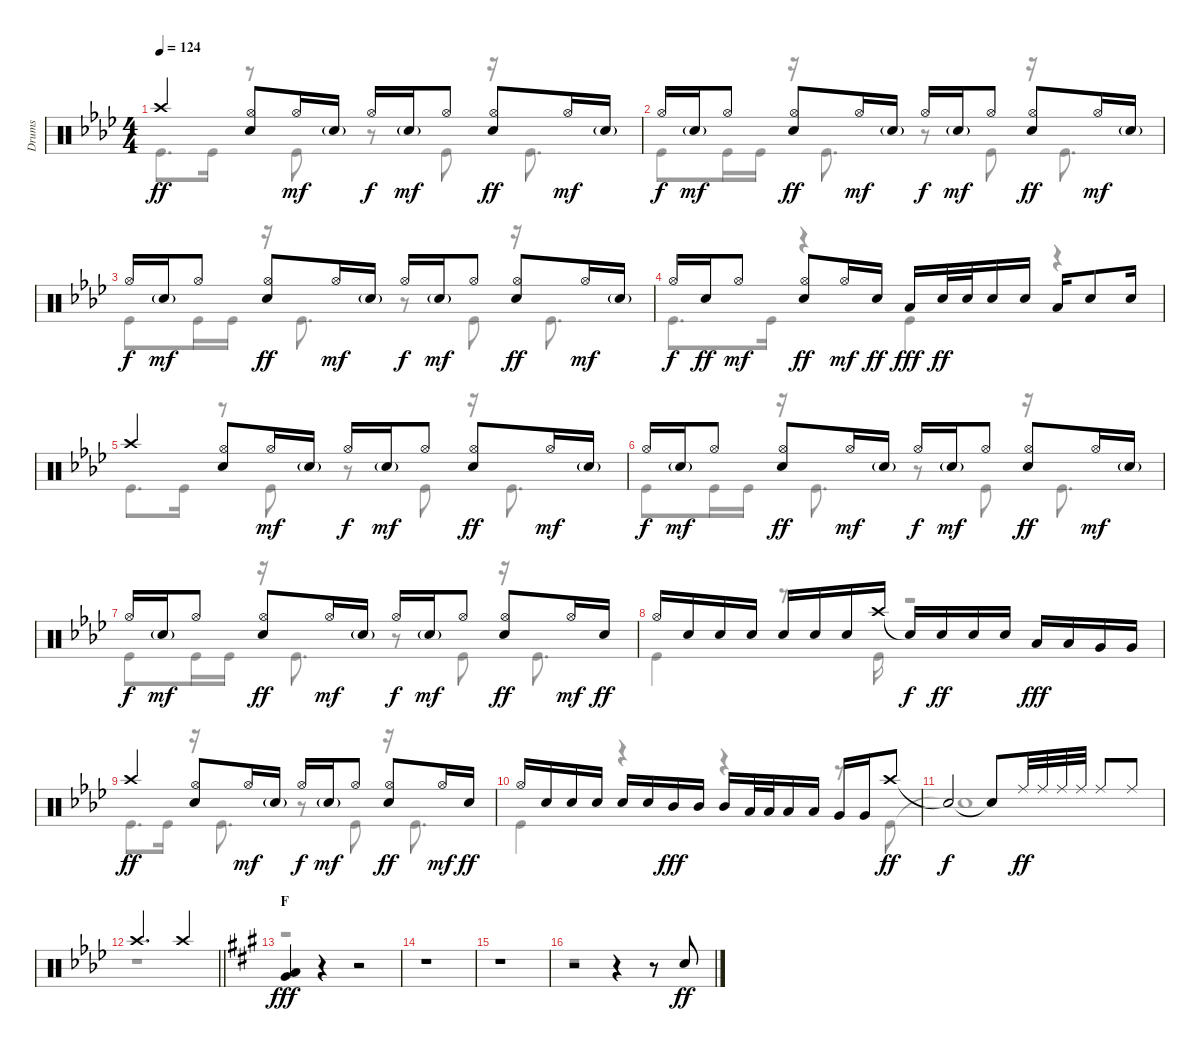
\track ("Drums" "Drums") {solo instrument percussion}
\staff {score}
\articulation defaults
\voice
\ts (4 4)
\tempo 124
\clef neutral
\ks ab "Crash high (hit)".4{dy ff}
("Hi-Hat (open)" "Electric Snare (hit)").8 "Hi-Hat (open)".16{dy mf} "Electric Snare (hit)"{g}.16 "Hi-Hat (open)".16{dy f} "Electric Snare (hit)"{g}.16{dy mf} "Hi-Hat (open)".8 ("Hi-Hat (open)" "Electric Snare (hit)").8{dy ff} "Hi-Hat (open)".16{dy mf} "Electric Snare (hit)"{g}.16 |
"Hi-Hat (open)".16{dy f} "Electric Snare (hit)"{g}.16{dy mf} "Hi-Hat (open)".8 ("Hi-Hat (open)" "Electric Snare (hit)").8{dy ff} "Hi-Hat (open)".16{dy mf} "Electric Snare (hit)"{g}.16 "Hi-Hat (open)".16{dy f} "Electric Snare (hit)"{g}.16{dy mf} "Hi-Hat (open)".8 ("Hi-Hat (open)" "Electric Snare (hit)").8{dy ff} "Hi-Hat (open)".16{dy mf} "Electric Snare (hit)"{g}.16 |
"Hi-Hat (open)".16{dy f} "Electric Snare (hit)"{g}.16{dy mf} "Hi-Hat (open)".8 ("Hi-Hat (open)" "Electric Snare (hit)").8{dy ff} "Hi-Hat (open)".16{dy mf} "Electric Snare (hit)"{g}.16 "Hi-Hat (open)".16{dy f} "Electric Snare (hit)"{g}.16{dy mf} "Hi-Hat (open)".8 ("Hi-Hat (open)" "Electric Snare (hit)").8{dy ff} "Hi-Hat (open)".16{dy mf} "Electric Snare (hit)"{g}.16 |
"Hi-Hat (open)".16{dy f} "Electric Snare (hit)".16{dy ff} "Hi-Hat (open)".8{dy mf} ("Hi-Hat (open)" "Electric Snare (hit)").8{dy ff} "Hi-Hat (open)".16{dy mf} "Electric Snare (hit)".16{dy ff} "Low Tom (hit)".16{dy fff} "Electric Snare (hit)".32{dy ff} "Electric Snare (hit)".32{beam splitsecondary} "Electric Snare (hit)".16 "Electric Snare (hit)".16 "Low Tom (hit)".16 "Electric Snare (hit)".8 "Electric Snare (hit)".16 |
"Crash high (hit)".4 ("Hi-Hat (open)" "Electric Snare (hit)").8 "Hi-Hat (open)".16{dy mf} "Electric Snare (hit)"{g}.16 "Hi-Hat (open)".16{dy f} "Electric Snare (hit)"{g}.16{dy mf} "Hi-Hat (open)".8 ("Hi-Hat (open)" "Electric Snare (hit)").8{dy ff} "Hi-Hat (open)".16{dy mf} "Electric Snare (hit)"{g}.16 |
"Hi-Hat (open)".16{dy f} "Electric Snare (hit)"{g}.16{dy mf} "Hi-Hat (open)".8 ("Hi-Hat (open)" "Electric Snare (hit)").8{dy ff} "Hi-Hat (open)".16{dy mf} "Electric Snare (hit)"{g}.16 "Hi-Hat (open)".16{dy f} "Electric Snare (hit)"{g}.16{dy mf} "Hi-Hat (open)".8 ("Hi-Hat (open)" "Electric Snare (hit)").8{dy ff} "Hi-Hat (open)".16{dy mf} "Electric Snare (hit)"{g}.16 |
"Hi-Hat (open)".16{dy f} "Electric Snare (hit)"{g}.16{dy mf} "Hi-Hat (open)".8 ("Hi-Hat (open)" "Electric Snare (hit)").8{dy ff} "Hi-Hat (open)".16{dy mf} "Electric Snare (hit)"{g}.16 "Hi-Hat (open)".16{dy f} "Electric Snare (hit)"{g}.16{dy mf} "Hi-Hat (open)".8 ("Hi-Hat (open)" "Electric Snare (hit)").8{dy ff} "Hi-Hat (open)".16{dy mf} "Electric Snare (hit)".16{dy ff} |
"Hi-Hat (open)".16 "Electric Snare (hit)".16 "Electric Snare (hit)".16 "Electric Snare (hit)".16 "Electric Snare (hit)".16 "Electric Snare (hit)".16 "Electric Snare (hit)".16 "Crash high (hit)".16 "Snare (hit)"{t}.16{dy f} "Electric Snare (hit)".16{dy ff} "Electric Snare (hit)".16 "Electric Snare (hit)".16 "Low Tom (hit)".16{dy fff} "Low Tom (hit)".16 "Very Low Tom (hit)".16 "Very Low Tom (hit)".16 |
"Crash high (hit)".4{dy ff} ("Hi-Hat (open)" "Electric Snare (hit)").8 "Hi-Hat (open)".16{dy mf} "Electric Snare (hit)"{g}.16 "Hi-Hat (open)".16{dy f} "Electric Snare (hit)"{g}.16{dy mf} "Hi-Hat (open)".8 ("Hi-Hat (open)" "Electric Snare (hit)").8{dy ff} "Hi-Hat (open)".16{dy mf} "Electric Snare (hit)".16{dy ff} |
"Hi-Hat (open)".16 "Electric Snare (hit)".16 "Electric Snare (hit)".16 "Electric Snare (hit)".16 "Electric Snare (hit)".16 "Electric Snare (hit)".16 "Mid Tom (hit)".16{dy fff} "Mid Tom (hit)".16 "Mid Tom (hit)".16 "Low Tom (hit)".32 "Low Tom (hit)".32{beam splitsecondary} "Low Tom (hit)".16 "Low Tom (hit)".16 "Very Low Tom (hit)".16 "Very Low Tom (hit)".16 "Crash high (hit)".8{dy ff} |
"Snare (hit)"{t}.2{dy f} "Snare (hit)"{t}.8 "Ride (middle)".32{dy ff} "Ride (middle)".32 "Ride (middle)".32 "Ride (middle)".32 "Ride (middle)".8 "Ride (middle)".8 |
\barLineRight lightlight "Crash high (hit)".2{d} "Crash high (hit)".4
|
\section ("" "F")
\ks a
("Low Tom (hit)" "Very Low Tom (hit)").4{dy fff} r.4 r.2 |
r.1 |
r.1 |
r.2 r.4 r.8 "Electric Snare (hit)".8{dy ff}
\voice
\clef neutral
\ottava regular
\simile none
\ks ab "Kick (hit)".8{d dy ff} "Kick (hit)".16
r.8 "Kick (hit)".8 r.8 "Kick (hit)".8 r.16 "Kick (hit)".8{d} |
"Kick (hit)".8 "Kick (hit)".16 "Kick (hit)".16 r.16 "Kick (hit)".8{d} r.8 "Kick (hit)".8 r.16 "Kick (hit)".8{d} |
"Kick (hit)".8 "Kick (hit)".16 "Kick (hit)".16 r.16 "Kick (hit)".8{d} r.8 "Kick (hit)".8 r.16 "Kick (hit)".8{d} |
"Kick (hit)".8{d} "Kick (hit)".16 r.4 "Kick (hit)".4 r.4 |
"Kick (hit)".8{d} "Kick (hit)".16 r.8 "Kick (hit)".8 r.8 "Kick (hit)".8 r.16 "Kick (hit)".8{d} |
"Kick (hit)".8 "Kick (hit)".16 "Kick (hit)".16 r.16 "Kick (hit)".8{d} r.8 "Kick (hit)".8 r.16 "Kick (hit)".8{d} |
"Kick (hit)".8 "Kick (hit)".16 "Kick (hit)".16 r.16 "Kick (hit)".8{d} r.8 "Kick (hit)".8 r.16 "Kick (hit)".8{d} |
"Kick (hit)".4 r.8{d} "Kick (hit)".16 r.2 |
"Kick (hit)".8{d} "Kick (hit)".16 r.16 "Kick (hit)".8{d} r.8 "Kick (hit)".8 r.16 "Kick (hit)".8{d} |
"Kick (hit)".4 r.4 r.4 r.8 "Kick (hit)".8 |
"Snare (hit)"{t}.1{dy f} |
\barLineRight lightlight
r.1 |
\ks a
r.1 |
|
|
r.1
